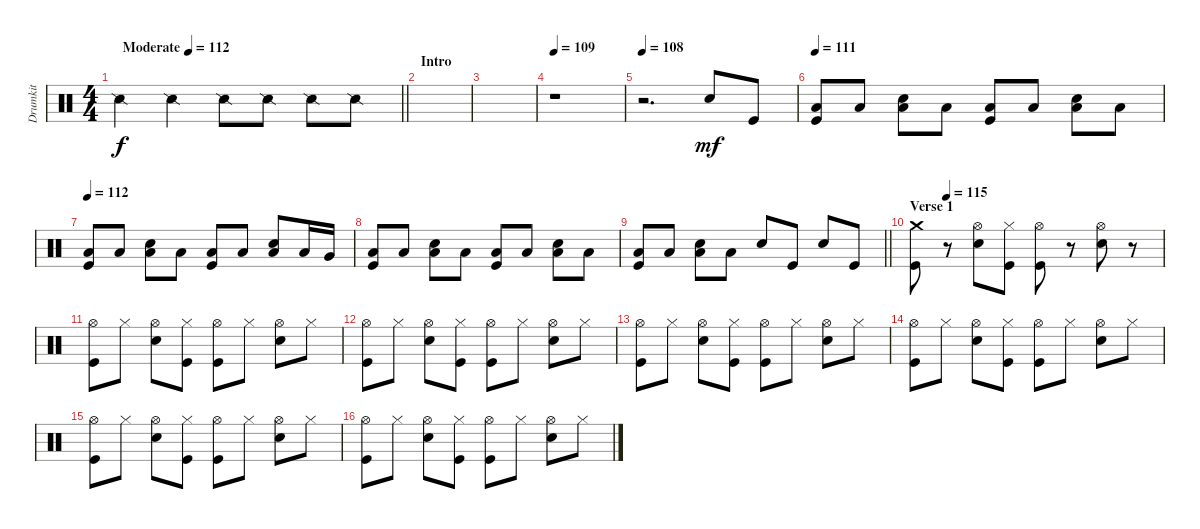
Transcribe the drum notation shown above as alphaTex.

\track ("Drumkit" "Drumkit") {instrument percussion}
\staff {score}
\articulation defaults
\ts (4 4)
\tempo (112 "Moderate")
\clef neutral
\barLineRight lightlight
\ks c "Snare (side stick) 2".4{dy f} "Snare (side stick) 2".4 "Snare (side stick) 2".8 "Snare (side stick) 2".8 "Snare (side stick) 2".8 "Snare (side stick) 2".8
|
\section ("" "Intro")
|
|
\tempo 109
r.1 |
\tempo 108
r.2{d} "Snare (hit) 2".8{dy mf} "Kick (hit)".8 |
\tempo 111
("Low Floor Tom (hit)" "Kick (hit)").8 "Low Floor Tom (hit)".8 ("Low Floor Tom (hit)" "Snare (hit) 2").8 "Low Floor Tom (hit)".8 ("Low Floor Tom (hit)" "Kick (hit)").8 "Low Floor Tom (hit)".8 ("Low Floor Tom (hit)" "Snare (hit) 2").8 "Low Floor Tom (hit)".8 |
\tempo 112
("Low Floor Tom (hit)" "Kick (hit)").8 "Low Floor Tom (hit)".8 ("Low Floor Tom (hit)" "Snare (hit) 2").8 "Low Floor Tom (hit)".8 ("Low Floor Tom (hit)" "Kick (hit)").8 "Low Floor Tom (hit)".8 ("Low Floor Tom (hit)" "Snare (hit) 2").8 "Low Floor Tom (hit)".16 "Very Low Tom (hit)".16 |
("Low Floor Tom (hit)" "Kick (hit)").8 "Low Floor Tom (hit)".8 ("Low Floor Tom (hit)" "Snare (hit) 2").8 "Low Floor Tom (hit)".8 ("Low Floor Tom (hit)" "Kick (hit)").8 "Low Floor Tom (hit)".8 ("Low Floor Tom (hit)" "Snare (hit) 2").8 "Low Floor Tom (hit)".8 |
\barLineRight lightlight
("Low Floor Tom (hit)" "Kick (hit)").8 "Low Floor Tom (hit)".8 ("Low Floor Tom (hit)" "Snare (hit) 2").8 "Low Floor Tom (hit)".8 "Snare (hit) 2".8 "Kick (hit)".8 "Snare (hit) 2".8 "Kick (hit)".8 |
\section ("" "Verse 1")
\tempo (115 0.125)
("Crash medium (hit)" "Kick (hit)").8 r.8 ("Hi-Hat (open)" "Snare (hit) 2").8 ("Hi-Hat (closed)" "Kick (hit)").8 ("Hi-Hat (open)" "Kick (hit)").8 r.8 ("Hi-Hat (open)" "Snare (hit) 2").8 r.8 |
("Hi-Hat (open)" "Kick (hit)").8 "Hi-Hat (closed)".8 ("Hi-Hat (open)" "Snare (hit) 2").8 ("Hi-Hat (closed)" "Kick (hit)").8 ("Hi-Hat (open)" "Kick (hit)").8 "Hi-Hat (closed)".8 ("Hi-Hat (open)" "Snare (hit) 2").8 "Hi-Hat (closed)".8 |
("Hi-Hat (open)" "Kick (hit)").8 "Hi-Hat (closed)".8 ("Hi-Hat (open)" "Snare (hit) 2").8 ("Hi-Hat (closed)" "Kick (hit)").8 ("Hi-Hat (open)" "Kick (hit)").8 "Hi-Hat (closed)".8 ("Hi-Hat (open)" "Snare (hit) 2").8 "Hi-Hat (closed)".8 |
("Hi-Hat (open)" "Kick (hit)").8 "Hi-Hat (closed)".8 ("Hi-Hat (open)" "Snare (hit) 2").8 ("Hi-Hat (closed)" "Kick (hit)").8 ("Hi-Hat (open)" "Kick (hit)").8 "Hi-Hat (closed)".8 ("Hi-Hat (open)" "Snare (hit) 2").8 "Hi-Hat (closed)".8 |
("Hi-Hat (open)" "Kick (hit)").8 "Hi-Hat (closed)".8 ("Hi-Hat (open)" "Snare (hit) 2").8 ("Hi-Hat (closed)" "Kick (hit)").8 ("Hi-Hat (open)" "Kick (hit)").8 "Hi-Hat (closed)".8 ("Hi-Hat (open)" "Snare (hit) 2").8 "Hi-Hat (closed)".8 |
("Hi-Hat (open)" "Kick (hit)").8 "Hi-Hat (closed)".8 ("Hi-Hat (open)" "Snare (hit) 2").8 ("Hi-Hat (closed)" "Kick (hit)").8 ("Hi-Hat (open)" "Kick (hit)").8 "Hi-Hat (closed)".8 ("Hi-Hat (open)" "Snare (hit) 2").8 "Hi-Hat (closed)".8 |
("Hi-Hat (open)" "Kick (hit)").8 "Hi-Hat (closed)".8 ("Hi-Hat (open)" "Snare (hit) 2").8 ("Hi-Hat (closed)" "Kick (hit)").8 ("Hi-Hat (open)" "Kick (hit)").8 "Hi-Hat (closed)".8 ("Hi-Hat (open)" "Snare (hit) 2").8 "Hi-Hat (closed)".8
